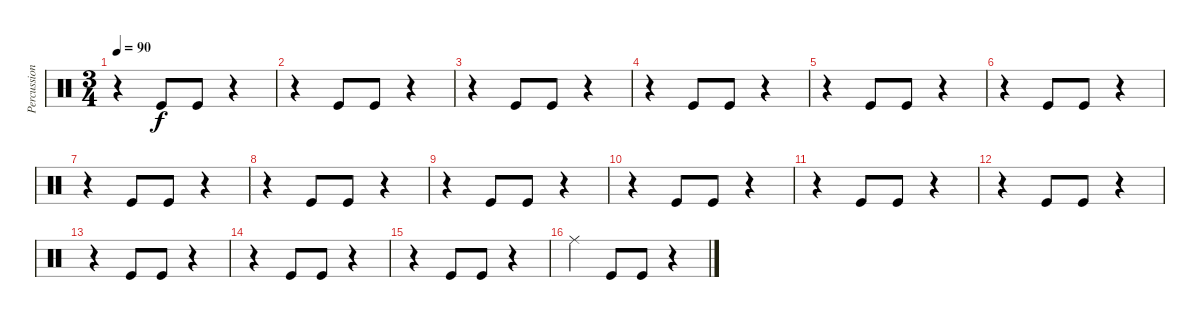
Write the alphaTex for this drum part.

\track ("Percussion" "Percussion") {instrument percussion}
\staff {score}
\articulation defaults
\ts (3 4)
\tempo 90
\clef neutral
\ks c
r.4{dy f} "Kick (hit)".8 "Kick (hit)".8 r.4 |
r.4 "Kick (hit)".8 "Kick (hit)".8 r.4 |
r.4 "Kick (hit)".8 "Kick (hit)".8 r.4 |
r.4 "Kick (hit)".8 "Kick (hit)".8 r.4 |
r.4 "Kick (hit)".8 "Kick (hit)".8 r.4 |
r.4 "Kick (hit)".8 "Kick (hit)".8 r.4 |
r.4 "Kick (hit)".8 "Kick (hit)".8 r.4 |
r.4 "Kick (hit)".8 "Kick (hit)".8 r.4 |
r.4 "Kick (hit)".8 "Kick (hit)".8 r.4 |
r.4 "Kick (hit)".8 "Kick (hit)".8 r.4 |
r.4 "Kick (hit)".8 "Kick (hit)".8 r.4 |
r.4 "Kick (hit)".8 "Kick (hit)".8 r.4 |
r.4 "Kick (hit)".8 "Kick (hit)".8 r.4 |
r.4 "Kick (hit)".8 "Kick (hit)".8 r.4 |
r.4 "Kick (hit)".8 "Kick (hit)".8 r.4 |
"Ride (middle)".4 "Kick (hit)".8 "Kick (hit)".8 r.4
